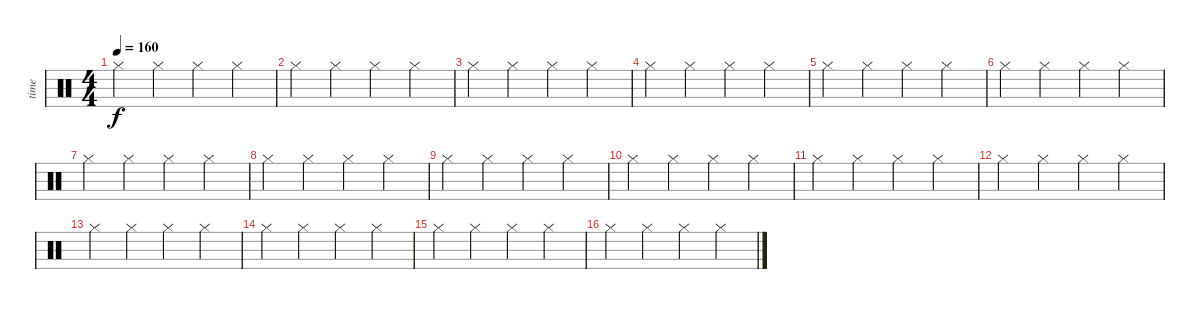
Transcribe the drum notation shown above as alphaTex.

\track ("time" "time") {instrument percussion}
\staff {score}
\articulation defaults
\ts (4 4)
\tempo 160
\clef neutral
\ks c "Hi-Hat (closed)".4{dy f} "Hi-Hat (closed)".4 "Hi-Hat (closed)".4 "Hi-Hat (closed)".4
|
"Hi-Hat (closed)".4 "Hi-Hat (closed)".4 "Hi-Hat (closed)".4 "Hi-Hat (closed)".4 |
"Hi-Hat (closed)".4 "Hi-Hat (closed)".4 "Hi-Hat (closed)".4 "Hi-Hat (closed)".4 |
"Hi-Hat (closed)".4 "Hi-Hat (closed)".4 "Hi-Hat (closed)".4 "Hi-Hat (closed)".4 |
"Hi-Hat (closed)".4 "Hi-Hat (closed)".4 "Hi-Hat (closed)".4 "Hi-Hat (closed)".4 |
"Hi-Hat (closed)".4 "Hi-Hat (closed)".4 "Hi-Hat (closed)".4 "Hi-Hat (closed)".4 |
"Hi-Hat (closed)".4 "Hi-Hat (closed)".4 "Hi-Hat (closed)".4 "Hi-Hat (closed)".4 |
"Hi-Hat (closed)".4 "Hi-Hat (closed)".4 "Hi-Hat (closed)".4 "Hi-Hat (closed)".4 |
"Hi-Hat (closed)".4 "Hi-Hat (closed)".4 "Hi-Hat (closed)".4 "Hi-Hat (closed)".4 |
"Hi-Hat (closed)".4 "Hi-Hat (closed)".4 "Hi-Hat (closed)".4 "Hi-Hat (closed)".4 |
"Hi-Hat (closed)".4 "Hi-Hat (closed)".4 "Hi-Hat (closed)".4 "Hi-Hat (closed)".4 |
"Hi-Hat (closed)".4 "Hi-Hat (closed)".4 "Hi-Hat (closed)".4 "Hi-Hat (closed)".4 |
"Hi-Hat (closed)".4 "Hi-Hat (closed)".4 "Hi-Hat (closed)".4 "Hi-Hat (closed)".4 |
"Hi-Hat (closed)".4 "Hi-Hat (closed)".4 "Hi-Hat (closed)".4 "Hi-Hat (closed)".4 |
"Hi-Hat (closed)".4 "Hi-Hat (closed)".4 "Hi-Hat (closed)".4 "Hi-Hat (closed)".4 |
"Hi-Hat (closed)".4 "Hi-Hat (closed)".4 "Hi-Hat (closed)".4 "Hi-Hat (closed)".4
